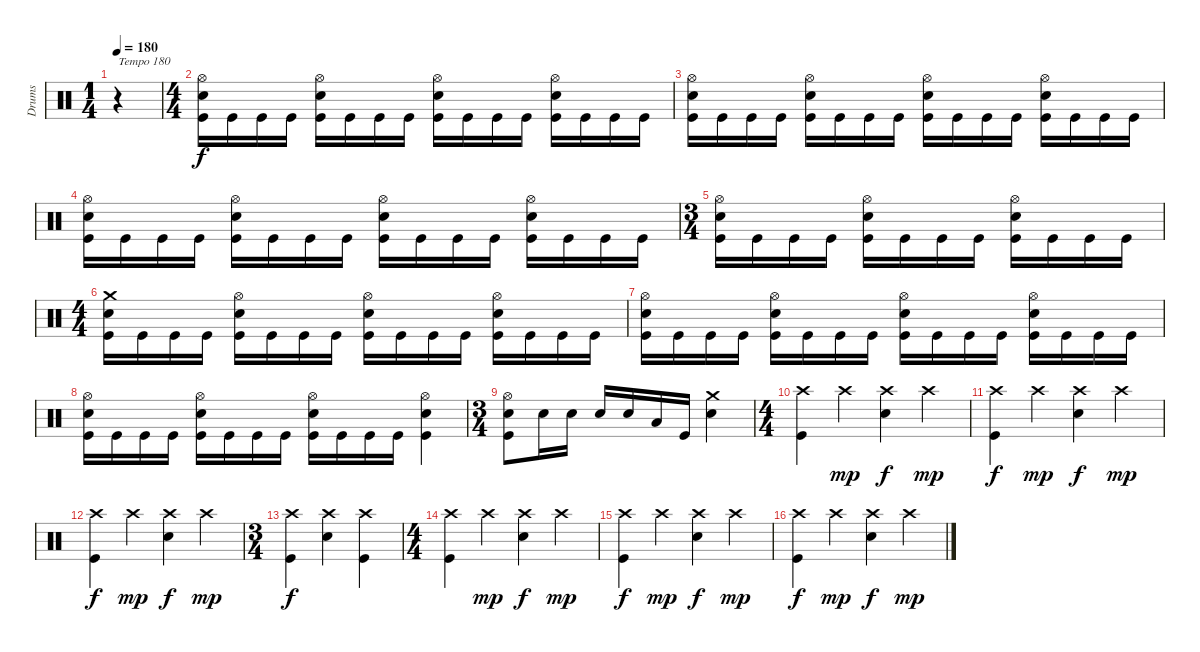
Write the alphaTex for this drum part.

\track ("Drums" "Drums") {instrument percussion}
\staff {score}
\articulation defaults
\ts (1 4)
\tempo 180
\clef neutral
\ks c
r.4{txt "Tempo 180" dy f} |
\ts (4 4)
("Hi-Hat (open)" "Electric Snare (hit)" "Kick (hit)").16 "Kick (hit)".16 "Kick (hit)".16 "Kick (hit)".16 ("Hi-Hat (open)" "Electric Snare (hit)" "Kick (hit)").16 "Kick (hit)".16 "Kick (hit)".16 "Kick (hit)".16 ("Hi-Hat (open)" "Electric Snare (hit)" "Kick (hit)").16 "Kick (hit)".16 "Kick (hit)".16 "Kick (hit)".16 ("Hi-Hat (open)" "Electric Snare (hit)" "Kick (hit)").16 "Kick (hit)".16 "Kick (hit)".16 "Kick (hit)".16 |
("Hi-Hat (open)" "Electric Snare (hit)" "Kick (hit)").16 "Kick (hit)".16 "Kick (hit)".16 "Kick (hit)".16 ("Hi-Hat (open)" "Electric Snare (hit)" "Kick (hit)").16 "Kick (hit)".16 "Kick (hit)".16 "Kick (hit)".16 ("Hi-Hat (open)" "Electric Snare (hit)" "Kick (hit)").16 "Kick (hit)".16 "Kick (hit)".16 "Kick (hit)".16 ("Hi-Hat (open)" "Electric Snare (hit)" "Kick (hit)").16 "Kick (hit)".16 "Kick (hit)".16 "Kick (hit)".16 |
("Hi-Hat (open)" "Electric Snare (hit)" "Kick (hit)").16 "Kick (hit)".16 "Kick (hit)".16 "Kick (hit)".16 ("Hi-Hat (open)" "Electric Snare (hit)" "Kick (hit)").16 "Kick (hit)".16 "Kick (hit)".16 "Kick (hit)".16 ("Hi-Hat (open)" "Electric Snare (hit)" "Kick (hit)").16 "Kick (hit)".16 "Kick (hit)".16 "Kick (hit)".16 ("Hi-Hat (open)" "Electric Snare (hit)" "Kick (hit)").16 "Kick (hit)".16 "Kick (hit)".16 "Kick (hit)".16 |
\ts (3 4)
("Hi-Hat (open)" "Electric Snare (hit)" "Kick (hit)").16 "Kick (hit)".16 "Kick (hit)".16 "Kick (hit)".16 ("Hi-Hat (open)" "Electric Snare (hit)" "Kick (hit)").16 "Kick (hit)".16 "Kick (hit)".16 "Kick (hit)".16 ("Hi-Hat (open)" "Electric Snare (hit)" "Kick (hit)").16 "Kick (hit)".16 "Kick (hit)".16 "Kick (hit)".16 |
\ts (4 4)
("Crash medium (hit)" "Electric Snare (hit)" "Kick (hit)").16 "Kick (hit)".16 "Kick (hit)".16 "Kick (hit)".16 ("Hi-Hat (open)" "Electric Snare (hit)" "Kick (hit)").16 "Kick (hit)".16 "Kick (hit)".16 "Kick (hit)".16 ("Hi-Hat (open)" "Electric Snare (hit)" "Kick (hit)").16 "Kick (hit)".16 "Kick (hit)".16 "Kick (hit)".16 ("Hi-Hat (open)" "Electric Snare (hit)" "Kick (hit)").16 "Kick (hit)".16 "Kick (hit)".16 "Kick (hit)".16 |
("Hi-Hat (open)" "Electric Snare (hit)" "Kick (hit)").16 "Kick (hit)".16 "Kick (hit)".16 "Kick (hit)".16 ("Hi-Hat (open)" "Electric Snare (hit)" "Kick (hit)").16 "Kick (hit)".16 "Kick (hit)".16 "Kick (hit)".16 ("Hi-Hat (open)" "Electric Snare (hit)" "Kick (hit)").16 "Kick (hit)".16 "Kick (hit)".16 "Kick (hit)".16 ("Hi-Hat (open)" "Electric Snare (hit)" "Kick (hit)").16 "Kick (hit)".16 "Kick (hit)".16 "Kick (hit)".16 |
("Hi-Hat (open)" "Electric Snare (hit)" "Kick (hit)").16 "Kick (hit)".16 "Kick (hit)".16 "Kick (hit)".16 ("Hi-Hat (open)" "Electric Snare (hit)" "Kick (hit)").16 "Kick (hit)".16 "Kick (hit)".16 "Kick (hit)".16 ("Hi-Hat (open)" "Electric Snare (hit)" "Kick (hit)").16 "Kick (hit)".16 "Kick (hit)".16 "Kick (hit)".16 ("Hi-Hat (open)" "Electric Snare (hit)" "Kick (hit)").4 |
\ts (3 4)
("Hi-Hat (open)" "Kick (hit)" "Electric Snare (hit)").8 "Electric Snare (hit)".16 "Electric Snare (hit)".16 "Electric Snare (hit)".16 "Electric Snare (hit)".16 "Low Tom (hit)".16 "Kick (hit)".16 ("Crash medium (hit)" "Electric Snare (hit)").4 |
\ts (4 4)
("Crash high (hit)" "Kick (hit)").4 "Crash high (hit)".4{dy mp} ("Crash high (hit)" "Electric Snare (hit)").4{dy f} "Crash high (hit)".4{dy mp} |
("Crash high (hit)" "Kick (hit)").4{dy f} "Crash high (hit)".4{dy mp} ("Crash high (hit)" "Electric Snare (hit)").4{dy f} "Crash high (hit)".4{dy mp} |
("Crash high (hit)" "Kick (hit)").4{dy f} "Crash high (hit)".4{dy mp} ("Crash high (hit)" "Electric Snare (hit)").4{dy f} "Crash high (hit)".4{dy mp} |
\ts (3 4)
("Crash high (hit)" "Kick (hit)").4{dy f} ("Crash high (hit)" "Electric Snare (hit)").4 ("Crash high (hit)" "Kick (hit)").4 |
\ts (4 4)
("Crash high (hit)" "Kick (hit)").4 "Crash high (hit)".4{dy mp} ("Crash high (hit)" "Electric Snare (hit)").4{dy f} "Crash high (hit)".4{dy mp} |
("Crash high (hit)" "Kick (hit)").4{dy f} "Crash high (hit)".4{dy mp} ("Crash high (hit)" "Electric Snare (hit)").4{dy f} "Crash high (hit)".4{dy mp} |
("Crash high (hit)" "Kick (hit)").4{dy f} "Crash high (hit)".4{dy mp} ("Crash high (hit)" "Electric Snare (hit)").4{dy f} "Crash high (hit)".4{dy mp}
